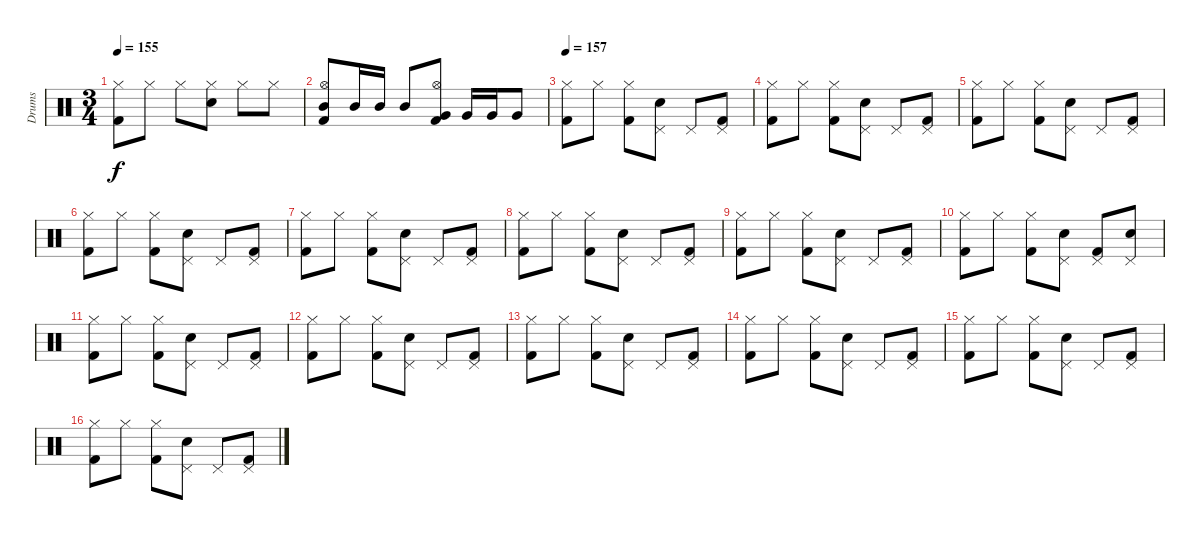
\track ("Drums" "Drums") {instrument percussion}
\staff {score}
\articulation defaults
\ts (3 4)
\tempo 155
\clef neutral
\ks c
("Hi-Hat (closed)" "Kick (hit) 2").8{dy f} "Hi-Hat (closed)".8 "Hi-Hat (closed)".8 ("Hi-Hat (closed)" "Electric Snare (hit)").8 "Hi-Hat (closed)".8 "Hi-Hat (closed)".8 |
("Hi-Hat (open)" "Mid Tom (hit)" "Kick (hit) 2").8 "Mid Tom (hit)".16 "Mid Tom (hit)".16 "Mid Tom (hit)".8 ("Hi-Hat (open)" "Very Low Tom (hit)" "Kick (hit) 2").8 "Very Low Tom (hit)".16 "Very Low Tom (hit)".16 "Very Low Tom (hit)".8 |
\tempo 155
\tempo 157
("Hi-Hat (closed)" "Kick (hit) 2").8 "Hi-Hat (closed)".8 ("Hi-Hat (closed)" "Kick (hit) 2").8 ("Pedal Hi-Hat (hit)" "Electric Snare (hit)").8 "Pedal Hi-Hat (hit)".8 ("Pedal Hi-Hat (hit)" "Kick (hit) 2").8 |
("Hi-Hat (closed)" "Kick (hit) 2").8 "Hi-Hat (closed)".8 ("Hi-Hat (closed)" "Kick (hit) 2").8 ("Pedal Hi-Hat (hit)" "Electric Snare (hit)").8 "Pedal Hi-Hat (hit)".8 ("Pedal Hi-Hat (hit)" "Kick (hit) 2").8 |
("Hi-Hat (closed)" "Kick (hit) 2").8 "Hi-Hat (closed)".8 ("Hi-Hat (closed)" "Kick (hit) 2").8 ("Pedal Hi-Hat (hit)" "Electric Snare (hit)").8 "Pedal Hi-Hat (hit)".8 ("Pedal Hi-Hat (hit)" "Kick (hit) 2").8 |
("Hi-Hat (closed)" "Kick (hit) 2").8 "Hi-Hat (closed)".8 ("Hi-Hat (closed)" "Kick (hit) 2").8 ("Pedal Hi-Hat (hit)" "Electric Snare (hit)").8 "Pedal Hi-Hat (hit)".8 ("Pedal Hi-Hat (hit)" "Kick (hit) 2").8 |
("Hi-Hat (closed)" "Kick (hit) 2").8 "Hi-Hat (closed)".8 ("Hi-Hat (closed)" "Kick (hit) 2").8 ("Pedal Hi-Hat (hit)" "Electric Snare (hit)").8 "Pedal Hi-Hat (hit)".8 ("Pedal Hi-Hat (hit)" "Kick (hit) 2").8 |
("Hi-Hat (closed)" "Kick (hit) 2").8 "Hi-Hat (closed)".8 ("Hi-Hat (closed)" "Kick (hit) 2").8 ("Pedal Hi-Hat (hit)" "Electric Snare (hit)").8 "Pedal Hi-Hat (hit)".8 ("Pedal Hi-Hat (hit)" "Kick (hit) 2").8 |
("Hi-Hat (closed)" "Kick (hit) 2").8 "Hi-Hat (closed)".8 ("Hi-Hat (closed)" "Kick (hit) 2").8 ("Pedal Hi-Hat (hit)" "Electric Snare (hit)").8 "Pedal Hi-Hat (hit)".8 ("Pedal Hi-Hat (hit)" "Kick (hit) 2").8 |
("Hi-Hat (closed)" "Kick (hit) 2").8 "Hi-Hat (closed)".8 ("Hi-Hat (closed)" "Kick (hit) 2").8 ("Pedal Hi-Hat (hit)" "Electric Snare (hit)").8 ("Pedal Hi-Hat (hit)" "Kick (hit) 2").8 ("Pedal Hi-Hat (hit)" "Electric Snare (hit)").8 |
("Hi-Hat (closed)" "Kick (hit) 2").8 "Hi-Hat (closed)".8 ("Hi-Hat (closed)" "Kick (hit) 2").8 ("Pedal Hi-Hat (hit)" "Electric Snare (hit)").8 "Pedal Hi-Hat (hit)".8 ("Pedal Hi-Hat (hit)" "Kick (hit) 2").8 |
("Hi-Hat (closed)" "Kick (hit) 2").8 "Hi-Hat (closed)".8 ("Hi-Hat (closed)" "Kick (hit) 2").8 ("Pedal Hi-Hat (hit)" "Electric Snare (hit)").8 "Pedal Hi-Hat (hit)".8 ("Pedal Hi-Hat (hit)" "Kick (hit) 2").8 |
("Hi-Hat (closed)" "Kick (hit) 2").8 "Hi-Hat (closed)".8 ("Hi-Hat (closed)" "Kick (hit) 2").8 ("Pedal Hi-Hat (hit)" "Electric Snare (hit)").8 "Pedal Hi-Hat (hit)".8 ("Pedal Hi-Hat (hit)" "Kick (hit) 2").8 |
("Hi-Hat (closed)" "Kick (hit) 2").8 "Hi-Hat (closed)".8 ("Hi-Hat (closed)" "Kick (hit) 2").8 ("Pedal Hi-Hat (hit)" "Electric Snare (hit)").8 "Pedal Hi-Hat (hit)".8 ("Pedal Hi-Hat (hit)" "Kick (hit) 2").8 |
("Hi-Hat (closed)" "Kick (hit) 2").8 "Hi-Hat (closed)".8 ("Hi-Hat (closed)" "Kick (hit) 2").8 ("Pedal Hi-Hat (hit)" "Electric Snare (hit)").8 "Pedal Hi-Hat (hit)".8 ("Pedal Hi-Hat (hit)" "Kick (hit) 2").8 |
("Hi-Hat (closed)" "Kick (hit) 2").8 "Hi-Hat (closed)".8 ("Hi-Hat (closed)" "Kick (hit) 2").8 ("Pedal Hi-Hat (hit)" "Electric Snare (hit)").8 "Pedal Hi-Hat (hit)".8 ("Pedal Hi-Hat (hit)" "Kick (hit) 2").8
